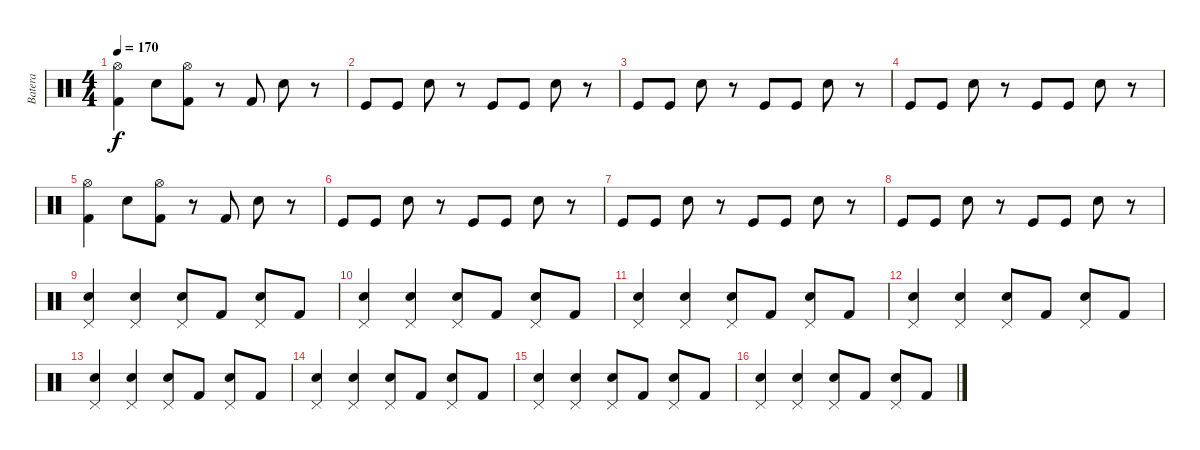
\track ("Batera" "Batera") {instrument percussion}
\staff {score}
\articulation defaults
\ts (4 4)
\tempo 170
\clef neutral
\ks c
("Hi-Hat (open)" "Kick (hit) 2").4{dy f} "Electric Snare (hit)".8 ("Hi-Hat (open)" "Kick (hit) 2").8 r.8 "Kick (hit) 2".8 "Electric Snare (hit)".8 r.8 |
"Kick (hit)".8 "Kick (hit)".8 "Electric Snare (hit)".8 r.8 "Kick (hit)".8 "Kick (hit)".8 "Electric Snare (hit)".8 r.8 |
"Kick (hit)".8 "Kick (hit)".8 "Electric Snare (hit)".8 r.8 "Kick (hit)".8 "Kick (hit)".8 "Electric Snare (hit)".8 r.8 |
"Kick (hit)".8 "Kick (hit)".8 "Electric Snare (hit)".8 r.8 "Kick (hit)".8 "Kick (hit)".8 "Electric Snare (hit)".8 r.8 |
("Hi-Hat (open)" "Kick (hit) 2").4 "Electric Snare (hit)".8 ("Hi-Hat (open)" "Kick (hit) 2").8 r.8 "Kick (hit) 2".8 "Electric Snare (hit)".8 r.8 |
"Kick (hit)".8 "Kick (hit)".8 "Electric Snare (hit)".8 r.8 "Kick (hit)".8 "Kick (hit)".8 "Electric Snare (hit)".8 r.8 |
"Kick (hit)".8 "Kick (hit)".8 "Electric Snare (hit)".8 r.8 "Kick (hit)".8 "Kick (hit)".8 "Electric Snare (hit)".8 r.8 |
"Kick (hit)".8 "Kick (hit)".8 "Electric Snare (hit)".8 r.8 "Kick (hit)".8 "Kick (hit)".8 "Electric Snare (hit)".8 r.8 |
("Pedal Hi-Hat (hit)" "Electric Snare (hit)").4 ("Pedal Hi-Hat (hit)" "Electric Snare (hit)").4 ("Pedal Hi-Hat (hit)" "Electric Snare (hit)").8 "Kick (hit) 2".8 ("Pedal Hi-Hat (hit)" "Electric Snare (hit)").8 "Kick (hit) 2".8 |
("Pedal Hi-Hat (hit)" "Electric Snare (hit)").4 ("Pedal Hi-Hat (hit)" "Electric Snare (hit)").4 ("Pedal Hi-Hat (hit)" "Electric Snare (hit)").8 "Kick (hit) 2".8 ("Pedal Hi-Hat (hit)" "Electric Snare (hit)").8 "Kick (hit) 2".8 |
("Pedal Hi-Hat (hit)" "Electric Snare (hit)").4 ("Pedal Hi-Hat (hit)" "Electric Snare (hit)").4 ("Pedal Hi-Hat (hit)" "Electric Snare (hit)").8 "Kick (hit) 2".8 ("Pedal Hi-Hat (hit)" "Electric Snare (hit)").8 "Kick (hit) 2".8 |
("Pedal Hi-Hat (hit)" "Electric Snare (hit)").4 ("Pedal Hi-Hat (hit)" "Electric Snare (hit)").4 ("Pedal Hi-Hat (hit)" "Electric Snare (hit)").8 "Kick (hit) 2".8 ("Pedal Hi-Hat (hit)" "Electric Snare (hit)").8 "Kick (hit) 2".8 |
("Pedal Hi-Hat (hit)" "Electric Snare (hit)").4 ("Pedal Hi-Hat (hit)" "Electric Snare (hit)").4 ("Pedal Hi-Hat (hit)" "Electric Snare (hit)").8 "Kick (hit) 2".8 ("Pedal Hi-Hat (hit)" "Electric Snare (hit)").8 "Kick (hit) 2".8 |
("Pedal Hi-Hat (hit)" "Electric Snare (hit)").4 ("Pedal Hi-Hat (hit)" "Electric Snare (hit)").4 ("Pedal Hi-Hat (hit)" "Electric Snare (hit)").8 "Kick (hit) 2".8 ("Pedal Hi-Hat (hit)" "Electric Snare (hit)").8 "Kick (hit) 2".8 |
("Pedal Hi-Hat (hit)" "Electric Snare (hit)").4 ("Pedal Hi-Hat (hit)" "Electric Snare (hit)").4 ("Pedal Hi-Hat (hit)" "Electric Snare (hit)").8 "Kick (hit) 2".8 ("Pedal Hi-Hat (hit)" "Electric Snare (hit)").8 "Kick (hit) 2".8 |
("Pedal Hi-Hat (hit)" "Electric Snare (hit)").4 ("Pedal Hi-Hat (hit)" "Electric Snare (hit)").4 ("Pedal Hi-Hat (hit)" "Electric Snare (hit)").8 "Kick (hit) 2".8 ("Pedal Hi-Hat (hit)" "Electric Snare (hit)").8 "Kick (hit) 2".8
